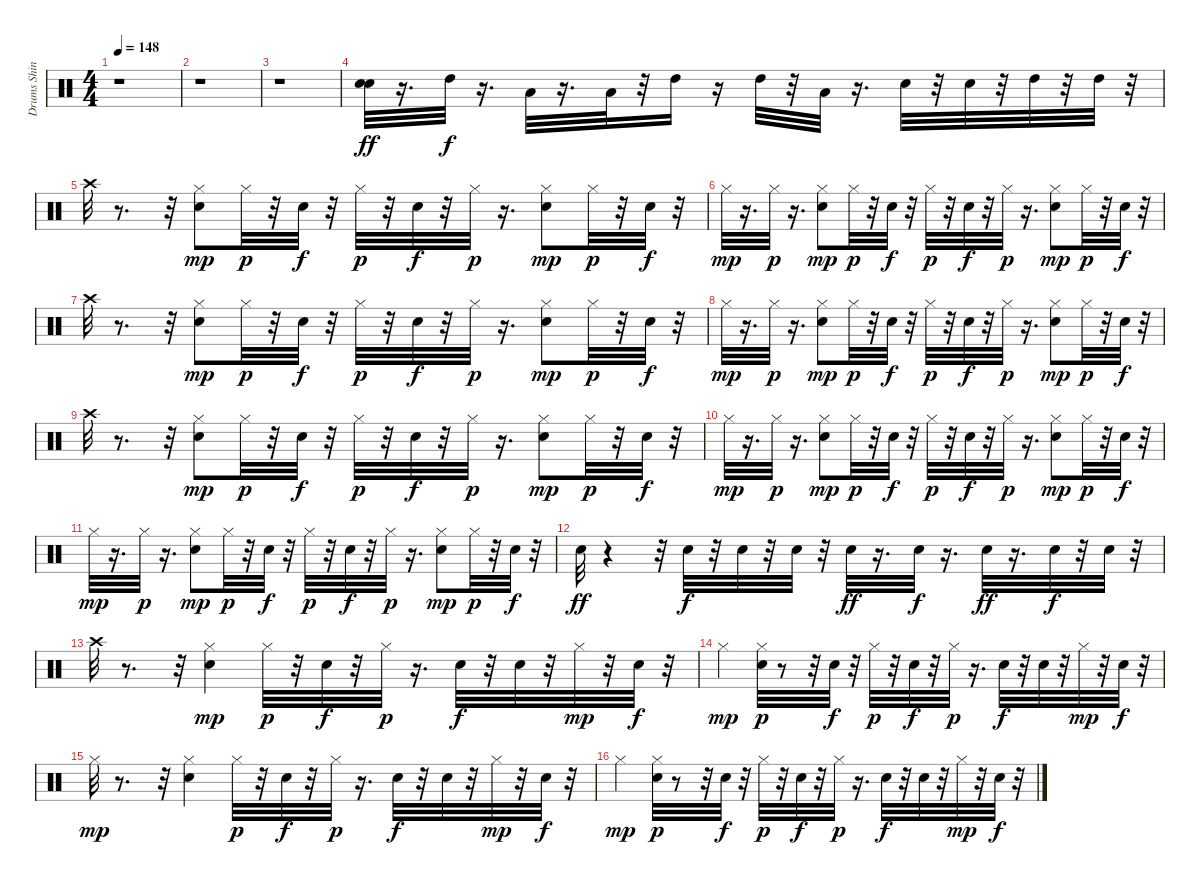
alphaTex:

\track ("Drums Shinya         " "Drums Shin") {instrument percussion}
\staff {score}
\articulation defaults
\ts (4 4)
\tempo 148
\clef neutral
\ks c
r.1{dy ff} |
r.1 |
r.1 |
("Electric Snare (hit)" "Electric Snare (hit)").32 r.16{d} "High Tom (hit)".32{dy f} r.16{d} "Low Tom (hit)".32 r.16{d} "Low Tom (hit)".32 r.32 "High Tom (hit)".16 r.16 "High Tom (hit)".32 r.32 "Low Tom (hit)".32 r.16{d} "Electric Snare (hit)".32 r.32 "Electric Snare (hit)".32 r.32 "High Tom (hit)".32 r.32 "High Tom (hit)".32 r.32 |
"Crash high (hit)".32 r.8{d} r.32 ("Electric Snare (hit)" "Hi-Hat (closed)").8{dy mp} "Hi-Hat (closed)".32{dy p} r.32 "Electric Snare (hit)".32{dy f} r.32 "Hi-Hat (closed)".32{dy p} r.32 "Electric Snare (hit)".32{dy f} r.32 "Hi-Hat (closed)".32{dy p} r.16{d} ("Electric Snare (hit)" "Hi-Hat (closed)").8{dy mp} "Hi-Hat (closed)".32{dy p} r.32 "Electric Snare (hit)".32{dy f} r.32 |
"Hi-Hat (closed)".32{dy mp} r.16{d} "Hi-Hat (closed)".32{dy p} r.16{d} ("Electric Snare (hit)" "Hi-Hat (closed)").8{dy mp} "Hi-Hat (closed)".32{dy p} r.32 "Electric Snare (hit)".32{dy f} r.32 "Hi-Hat (closed)".32{dy p} r.32 "Electric Snare (hit)".32{dy f} r.32 "Hi-Hat (closed)".32{dy p} r.16{d} ("Electric Snare (hit)" "Hi-Hat (closed)").8{dy mp} "Hi-Hat (closed)".32{dy p} r.32 "Electric Snare (hit)".32{dy f} r.32 |
"Crash high (hit)".32 r.8{d} r.32 ("Electric Snare (hit)" "Hi-Hat (closed)").8{dy mp} "Hi-Hat (closed)".32{dy p} r.32 "Electric Snare (hit)".32{dy f} r.32 "Hi-Hat (closed)".32{dy p} r.32 "Electric Snare (hit)".32{dy f} r.32 "Hi-Hat (closed)".32{dy p} r.16{d} ("Electric Snare (hit)" "Hi-Hat (closed)").8{dy mp} "Hi-Hat (closed)".32{dy p} r.32 "Electric Snare (hit)".32{dy f} r.32 |
"Hi-Hat (closed)".32{dy mp} r.16{d} "Hi-Hat (closed)".32{dy p} r.16{d} ("Electric Snare (hit)" "Hi-Hat (closed)").8{dy mp} "Hi-Hat (closed)".32{dy p} r.32 "Electric Snare (hit)".32{dy f} r.32 "Hi-Hat (closed)".32{dy p} r.32 "Electric Snare (hit)".32{dy f} r.32 "Hi-Hat (closed)".32{dy p} r.16{d} ("Electric Snare (hit)" "Hi-Hat (closed)").8{dy mp} "Hi-Hat (closed)".32{dy p} r.32 "Electric Snare (hit)".32{dy f} r.32 |
"Crash high (hit)".32 r.8{d} r.32 ("Electric Snare (hit)" "Hi-Hat (closed)").8{dy mp} "Hi-Hat (closed)".32{dy p} r.32 "Electric Snare (hit)".32{dy f} r.32 "Hi-Hat (closed)".32{dy p} r.32 "Electric Snare (hit)".32{dy f} r.32 "Hi-Hat (closed)".32{dy p} r.16{d} ("Electric Snare (hit)" "Hi-Hat (closed)").8{dy mp} "Hi-Hat (closed)".32{dy p} r.32 "Electric Snare (hit)".32{dy f} r.32 |
"Hi-Hat (closed)".32{dy mp} r.16{d} "Hi-Hat (closed)".32{dy p} r.16{d} ("Electric Snare (hit)" "Hi-Hat (closed)").8{dy mp} "Hi-Hat (closed)".32{dy p} r.32 "Electric Snare (hit)".32{dy f} r.32 "Hi-Hat (closed)".32{dy p} r.32 "Electric Snare (hit)".32{dy f} r.32 "Hi-Hat (closed)".32{dy p} r.16{d} ("Electric Snare (hit)" "Hi-Hat (closed)").8{dy mp} "Hi-Hat (closed)".32{dy p} r.32 "Electric Snare (hit)".32{dy f} r.32 |
"Hi-Hat (closed)".32{dy mp} r.16{d} "Hi-Hat (closed)".32{dy p} r.16{d} ("Electric Snare (hit)" "Hi-Hat (closed)").8{dy mp} "Hi-Hat (closed)".32{dy p} r.32 "Electric Snare (hit)".32{dy f} r.32 "Hi-Hat (closed)".32{dy p} r.32 "Electric Snare (hit)".32{dy f} r.32 "Hi-Hat (closed)".32{dy p} r.16{d} ("Electric Snare (hit)" "Hi-Hat (closed)").8{dy mp} "Hi-Hat (closed)".32{dy p} r.32 "Electric Snare (hit)".32{dy f} r.32 |
"Electric Snare (hit)".32{dy ff} r.4 r.32 "Electric Snare (hit)".32{dy f} r.32 "Electric Snare (hit)".32 r.32 "Electric Snare (hit)".32 r.32 "Electric Snare (hit)".32{dy ff} r.16{d} "Electric Snare (hit)".32{dy f} r.16{d} "Electric Snare (hit)".32{dy ff} r.16{d} "Electric Snare (hit)".32{dy f} r.32 "Electric Snare (hit)".32 r.32 |
"Crash high (hit)".32 r.8{d} r.32 ("Electric Snare (hit)" "Hi-Hat (closed)").4{dy mp} "Hi-Hat (closed)".32{dy p} r.32 "Electric Snare (hit)".32{dy f} r.32 "Hi-Hat (closed)".32{dy p} r.16{d} "Electric Snare (hit)".32{dy f} r.32 "Electric Snare (hit)".32 r.32 "Hi-Hat (closed)".32{dy mp} r.32 "Electric Snare (hit)".32{dy f} r.32 |
"Hi-Hat (closed)".4{dy mp} ("Electric Snare (hit)" "Hi-Hat (closed)").32{dy p} r.8 r.32 "Electric Snare (hit)".32{dy f} r.32 "Hi-Hat (closed)".32{dy p} r.32 "Electric Snare (hit)".32{dy f} r.32 "Hi-Hat (closed)".32{dy p} r.16{d} "Electric Snare (hit)".32{dy f} r.32 "Electric Snare (hit)".32 r.32 "Hi-Hat (closed)".32{dy mp} r.32 "Electric Snare (hit)".32{dy f} r.32 |
"Hi-Hat (closed)".32{dy mp} r.8{d} r.32 ("Electric Snare (hit)" "Hi-Hat (closed)").4 "Hi-Hat (closed)".32{dy p} r.32 "Electric Snare (hit)".32{dy f} r.32 "Hi-Hat (closed)".32{dy p} r.16{d} "Electric Snare (hit)".32{dy f} r.32 "Electric Snare (hit)".32 r.32 "Hi-Hat (closed)".32{dy mp} r.32 "Electric Snare (hit)".32{dy f} r.32 |
"Hi-Hat (closed)".4{dy mp} ("Electric Snare (hit)" "Hi-Hat (closed)").32{dy p} r.8 r.32 "Electric Snare (hit)".32{dy f} r.32 "Hi-Hat (closed)".32{dy p} r.32 "Electric Snare (hit)".32{dy f} r.32 "Hi-Hat (closed)".32{dy p} r.16{d} "Electric Snare (hit)".32{dy f} r.32 "Electric Snare (hit)".32 r.32 "Hi-Hat (closed)".32{dy mp} r.32 "Electric Snare (hit)".32{dy f} r.32
